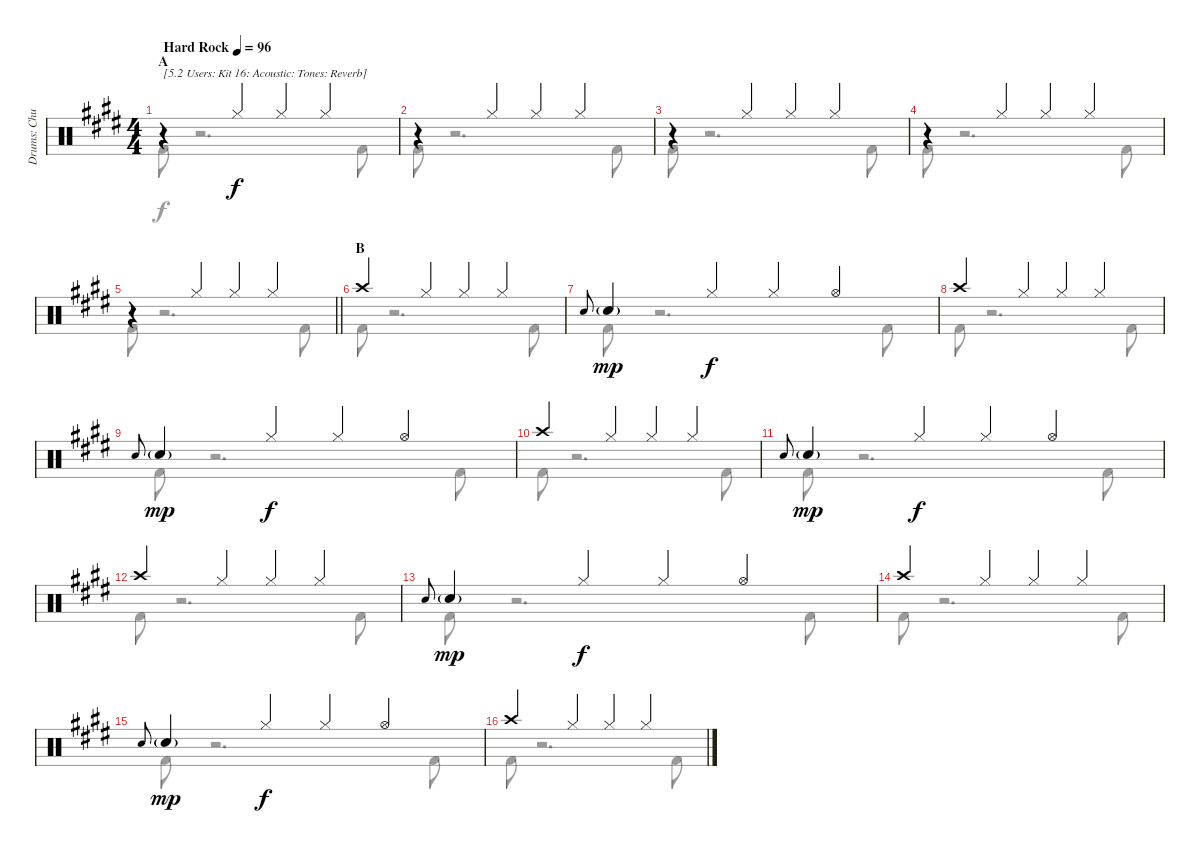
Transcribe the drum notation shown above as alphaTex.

\track ("Drums: Chuck" "Drums: Chu") {instrument percussion}
\staff {score}
\articulation defaults
\voice
\ts (4 4)
\section ("" "A")
\tempo (96 "Hard Rock")
\clef neutral
\ks e
r.4{txt "[5.2 Users: Kit 16: Acoustic: Tones: Reverb]" dy f} "Hi-Hat (closed)".4 "Hi-Hat (closed)".4 "Hi-Hat (closed)".4 |
r.4 "Hi-Hat (closed)".4 "Hi-Hat (closed)".4 "Hi-Hat (closed)".4 |
r.4 "Hi-Hat (closed)".4 "Hi-Hat (closed)".4 "Hi-Hat (closed)".4 |
r.4 "Hi-Hat (closed)".4 "Hi-Hat (closed)".4 "Hi-Hat (closed)".4 |
\barLineRight lightlight
r.4 "Hi-Hat (closed)".4 "Hi-Hat (closed)".4 "Hi-Hat (closed)".4 |
\section ("" "B")
"Crash high (hit)".4 "Hi-Hat (closed)".4 "Hi-Hat (closed)".4 "Hi-Hat (closed)".4 |
"Electric Snare (hit)".8{gr onbeat} "Snare (hit) 2"{g}.4{dy mp} "Hi-Hat (closed)".4{dy f} "Hi-Hat (closed)".4 "Hi-Hat (open)".4 |
"Crash high (hit)".4 "Hi-Hat (closed)".4 "Hi-Hat (closed)".4 "Hi-Hat (closed)".4 |
"Electric Snare (hit)".8{gr onbeat} "Snare (hit) 2"{g}.4{dy mp} "Hi-Hat (closed)".4{dy f} "Hi-Hat (closed)".4 "Hi-Hat (open)".4 |
"Crash high (hit)".4 "Hi-Hat (closed)".4 "Hi-Hat (closed)".4 "Hi-Hat (closed)".4 |
"Electric Snare (hit)".8{gr onbeat} "Snare (hit) 2"{g}.4{dy mp} "Hi-Hat (closed)".4{dy f} "Hi-Hat (closed)".4 "Hi-Hat (open)".4 |
"Crash high (hit)".4 "Hi-Hat (closed)".4 "Hi-Hat (closed)".4 "Hi-Hat (closed)".4 |
"Electric Snare (hit)".8{gr onbeat} "Snare (hit) 2"{g}.4{dy mp} "Hi-Hat (closed)".4{dy f} "Hi-Hat (closed)".4 "Hi-Hat (open)".4 |
"Crash high (hit)".4 "Hi-Hat (closed)".4 "Hi-Hat (closed)".4 "Hi-Hat (closed)".4 |
"Electric Snare (hit)".8{gr onbeat} "Snare (hit) 2"{g}.4{dy mp} "Hi-Hat (closed)".4{dy f} "Hi-Hat (closed)".4 "Hi-Hat (open)".4 |
"Crash high (hit)".4 "Hi-Hat (closed)".4 "Hi-Hat (closed)".4 "Hi-Hat (closed)".4
\voice
\clef neutral
\ottava regular
\simile none
\ks e "Kick (hit) 2".8{dy f}
r.2{d} "Kick (hit) 2".8 |
"Kick (hit) 2".8 r.2{d} "Kick (hit) 2".8 |
"Kick (hit) 2".8 r.2{d} "Kick (hit) 2".8 |
"Kick (hit) 2".8 r.2{d} "Kick (hit) 2".8 |
\barLineRight lightlight "Kick (hit) 2".8
r.2{d} "Kick (hit) 2".8 |
"Kick (hit) 2".8 r.2{d} "Kick (hit) 2".8 |
"Kick (hit) 2".8 r.2{d} "Kick (hit) 2".8 |
"Kick (hit) 2".8 r.2{d} "Kick (hit) 2".8 |
"Kick (hit) 2".8 r.2{d} "Kick (hit) 2".8 |
"Kick (hit) 2".8 r.2{d} "Kick (hit) 2".8 |
"Kick (hit) 2".8 r.2{d} "Kick (hit) 2".8 |
"Kick (hit) 2".8 r.2{d} "Kick (hit) 2".8 |
"Kick (hit) 2".8 r.2{d} "Kick (hit) 2".8 |
"Kick (hit) 2".8 r.2{d} "Kick (hit) 2".8 |
"Kick (hit) 2".8 r.2{d} "Kick (hit) 2".8 |
"Kick (hit) 2".8 r.2{d} "Kick (hit) 2".8
